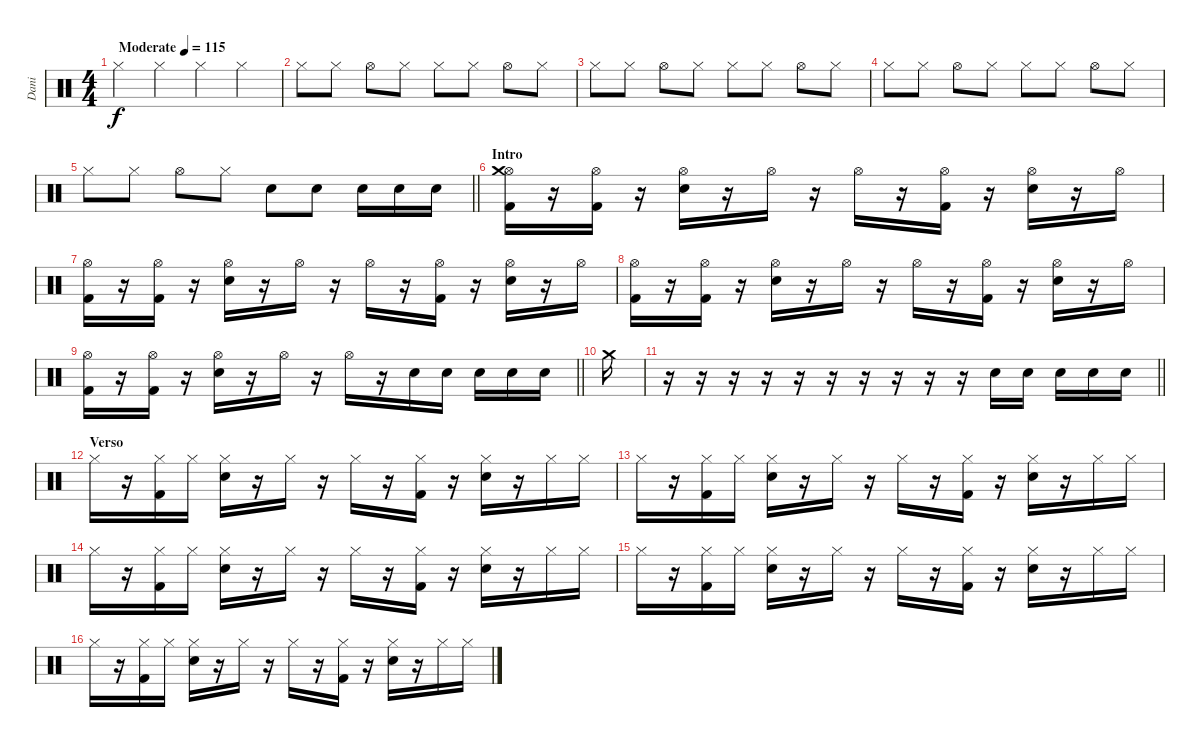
\track ("Dani" "Dani") {instrument percussion}
\staff {score}
\articulation defaults
\ts (4 4)
\tempo (115 "Moderate")
\clef neutral
\ks c "Hi-Hat (closed)".4{dy f} "Hi-Hat (closed)".4 "Hi-Hat (closed)".4 "Hi-Hat (closed)".4
|
"Hi-Hat (closed)".8 "Hi-Hat (closed)".8 "Hi-Hat (open)".8 "Hi-Hat (closed)".8 "Hi-Hat (closed)".8 "Hi-Hat (closed)".8 "Hi-Hat (open)".8 "Hi-Hat (closed)".8 |
"Hi-Hat (closed)".8 "Hi-Hat (closed)".8 "Hi-Hat (open)".8 "Hi-Hat (closed)".8 "Hi-Hat (closed)".8 "Hi-Hat (closed)".8 "Hi-Hat (open)".8 "Hi-Hat (closed)".8 |
"Hi-Hat (closed)".8 "Hi-Hat (closed)".8 "Hi-Hat (open)".8 "Hi-Hat (closed)".8 "Hi-Hat (closed)".8 "Hi-Hat (closed)".8 "Hi-Hat (open)".8 "Hi-Hat (closed)".8 |
\barLineRight lightlight "Hi-Hat (closed)".8 "Hi-Hat (closed)".8 "Hi-Hat (open)".8 "Hi-Hat (closed)".8 "Snare (hit) 2".8 "Snare (hit) 2".8 "Snare (hit) 2".16 "Snare (hit) 2".16 "Snare (hit) 2".16
|
\section ("" "Intro")
("Hi-Hat (open)" "Crash medium (hit)" "Kick (hit) 2").16 r.16 ("Hi-Hat (open)" "Kick (hit) 2").16 r.16 ("Hi-Hat (open)" "Snare (hit) 2").16 r.16 "Hi-Hat (open)".16 r.16 "Hi-Hat (open)".16 r.16 ("Hi-Hat (open)" "Kick (hit) 2").16 r.16 ("Hi-Hat (open)" "Snare (hit) 2").16 r.16 "Hi-Hat (open)".16 |
("Hi-Hat (open)" "Kick (hit) 2").16 r.16 ("Hi-Hat (open)" "Kick (hit) 2").16 r.16 ("Hi-Hat (open)" "Snare (hit) 2").16 r.16 "Hi-Hat (open)".16 r.16 "Hi-Hat (open)".16 r.16 ("Hi-Hat (open)" "Kick (hit) 2").16 r.16 ("Hi-Hat (open)" "Snare (hit) 2").16 r.16 "Hi-Hat (open)".16 |
("Hi-Hat (open)" "Kick (hit) 2").16 r.16 ("Hi-Hat (open)" "Kick (hit) 2").16 r.16 ("Hi-Hat (open)" "Snare (hit) 2").16 r.16 "Hi-Hat (open)".16 r.16 "Hi-Hat (open)".16 r.16 ("Hi-Hat (open)" "Kick (hit) 2").16 r.16 ("Hi-Hat (open)" "Snare (hit) 2").16 r.16 "Hi-Hat (open)".16 |
\barLineRight lightlight
("Hi-Hat (open)" "Kick (hit) 2").16 r.16 ("Hi-Hat (open)" "Kick (hit) 2").16 r.16 ("Hi-Hat (open)" "Snare (hit) 2").16 r.16 "Hi-Hat (open)".16 r.16 "Hi-Hat (open)".16 r.16 "Snare (hit) 2".16 "Snare (hit) 2".16 "Snare (hit) 2".16 "Snare (hit) 2".16 "Snare (hit) 2".16 |
"Crash medium (hit)".16 |
\barLineRight lightlight
r.16 r.16 r.16 r.16 r.16 r.16 r.16 r.16 r.16 r.16 "Snare (hit) 2".16 "Snare (hit) 2".16 "Snare (hit) 2".16 "Snare (hit) 2".16 "Snare (hit) 2".16 |
\section ("" "Verso")
"Hi-Hat (closed)".16 r.16 ("Hi-Hat (closed)" "Kick (hit) 2").16 "Hi-Hat (closed)".16 ("Hi-Hat (closed)" "Snare (hit) 2").16 r.16 "Hi-Hat (closed)".16 r.16 "Hi-Hat (closed)".16 r.16 ("Hi-Hat (closed)" "Kick (hit) 2").16 r.16 ("Hi-Hat (closed)" "Snare (hit) 2").16 r.16 "Hi-Hat (closed)".16 "Hi-Hat (closed)".16 |
"Hi-Hat (closed)".16 r.16 ("Hi-Hat (closed)" "Kick (hit) 2").16 "Hi-Hat (closed)".16 ("Hi-Hat (closed)" "Snare (hit) 2").16 r.16 "Hi-Hat (closed)".16 r.16 "Hi-Hat (closed)".16 r.16 ("Hi-Hat (closed)" "Kick (hit) 2").16 r.16 ("Hi-Hat (closed)" "Snare (hit) 2").16 r.16 "Hi-Hat (closed)".16 "Hi-Hat (closed)".16 |
"Hi-Hat (closed)".16 r.16 ("Hi-Hat (closed)" "Kick (hit) 2").16 "Hi-Hat (closed)".16 ("Hi-Hat (closed)" "Snare (hit) 2").16 r.16 "Hi-Hat (closed)".16 r.16 "Hi-Hat (closed)".16 r.16 ("Hi-Hat (closed)" "Kick (hit) 2").16 r.16 ("Hi-Hat (closed)" "Snare (hit) 2").16 r.16 "Hi-Hat (closed)".16 "Hi-Hat (closed)".16 |
"Hi-Hat (closed)".16 r.16 ("Hi-Hat (closed)" "Kick (hit) 2").16 "Hi-Hat (closed)".16 ("Hi-Hat (closed)" "Snare (hit) 2").16 r.16 "Hi-Hat (closed)".16 r.16 "Hi-Hat (closed)".16 r.16 ("Hi-Hat (closed)" "Kick (hit) 2").16 r.16 ("Hi-Hat (closed)" "Snare (hit) 2").16 r.16 "Hi-Hat (closed)".16 "Hi-Hat (closed)".16 |
"Hi-Hat (closed)".16 r.16 ("Hi-Hat (closed)" "Kick (hit) 2").16 "Hi-Hat (closed)".16 ("Hi-Hat (closed)" "Snare (hit) 2").16 r.16 "Hi-Hat (closed)".16 r.16 "Hi-Hat (closed)".16 r.16 ("Hi-Hat (closed)" "Kick (hit) 2").16 r.16 ("Hi-Hat (closed)" "Snare (hit) 2").16 r.16 "Hi-Hat (closed)".16 "Hi-Hat (closed)".16
